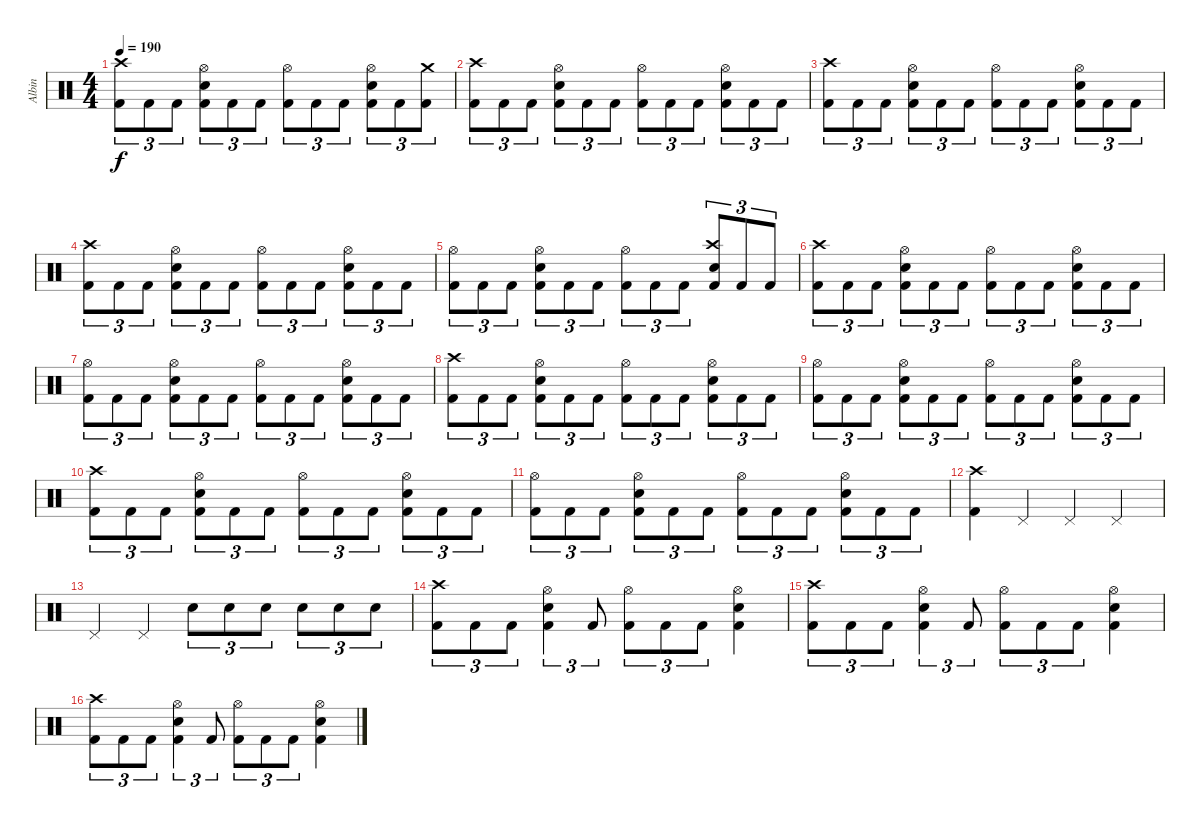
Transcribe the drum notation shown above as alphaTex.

\track ("Albin" "Albin") {instrument percussion}
\staff {score}
\articulation defaults
\ts (4 4)
\tempo 190
\clef neutral
\ks c
("Kick (hit) 2" "Crash high (hit)").8{tu (3 2) dy f} "Kick (hit) 2".8{tu (3 2)} "Kick (hit) 2".8{tu (3 2)} ("Kick (hit) 2" "Electric Snare (hit)" "Hi-Hat (open)").8{tu (3 2)} "Kick (hit) 2".8{tu (3 2)} "Kick (hit) 2".8{tu (3 2)} ("Kick (hit) 2" "Hi-Hat (open)").8{tu (3 2)} "Kick (hit) 2".8{tu (3 2)} "Kick (hit) 2".8{tu (3 2)} ("Kick (hit) 2" "Electric Snare (hit)" "Hi-Hat (open)").8{tu (3 2)} "Kick (hit) 2".8{tu (3 2)} ("Kick (hit) 2" "Crash medium (hit)").8{tu (3 2)} |
("Kick (hit) 2" "Crash high (hit)").8{tu (3 2)} "Kick (hit) 2".8{tu (3 2)} "Kick (hit) 2".8{tu (3 2)} ("Kick (hit) 2" "Electric Snare (hit)" "Hi-Hat (open)").8{tu (3 2)} "Kick (hit) 2".8{tu (3 2)} "Kick (hit) 2".8{tu (3 2)} ("Kick (hit) 2" "Hi-Hat (open)").8{tu (3 2)} "Kick (hit) 2".8{tu (3 2)} "Kick (hit) 2".8{tu (3 2)} ("Kick (hit) 2" "Electric Snare (hit)" "Hi-Hat (open)").8{tu (3 2)} "Kick (hit) 2".8{tu (3 2)} "Kick (hit) 2".8{tu (3 2)} |
("Kick (hit) 2" "Crash high (hit)").8{tu (3 2)} "Kick (hit) 2".8{tu (3 2)} "Kick (hit) 2".8{tu (3 2)} ("Kick (hit) 2" "Electric Snare (hit)" "Hi-Hat (open)").8{tu (3 2)} "Kick (hit) 2".8{tu (3 2)} "Kick (hit) 2".8{tu (3 2)} ("Kick (hit) 2" "Hi-Hat (open)").8{tu (3 2)} "Kick (hit) 2".8{tu (3 2)} "Kick (hit) 2".8{tu (3 2)} ("Kick (hit) 2" "Electric Snare (hit)" "Hi-Hat (open)").8{tu (3 2)} "Kick (hit) 2".8{tu (3 2)} "Kick (hit) 2".8{tu (3 2)} |
("Kick (hit) 2" "Crash high (hit)").8{tu (3 2)} "Kick (hit) 2".8{tu (3 2)} "Kick (hit) 2".8{tu (3 2)} ("Kick (hit) 2" "Electric Snare (hit)" "Hi-Hat (open)").8{tu (3 2)} "Kick (hit) 2".8{tu (3 2)} "Kick (hit) 2".8{tu (3 2)} ("Kick (hit) 2" "Hi-Hat (open)").8{tu (3 2)} "Kick (hit) 2".8{tu (3 2)} "Kick (hit) 2".8{tu (3 2)} ("Kick (hit) 2" "Electric Snare (hit)" "Hi-Hat (open)").8{tu (3 2)} "Kick (hit) 2".8{tu (3 2)} "Kick (hit) 2".8{tu (3 2)} |
("Kick (hit) 2" "Hi-Hat (open)").8{tu (3 2)} "Kick (hit) 2".8{tu (3 2)} "Kick (hit) 2".8{tu (3 2)} ("Kick (hit) 2" "Electric Snare (hit)" "Hi-Hat (open)").8{tu (3 2)} "Kick (hit) 2".8{tu (3 2)} "Kick (hit) 2".8{tu (3 2)} ("Kick (hit) 2" "Hi-Hat (open)").8{tu (3 2)} "Kick (hit) 2".8{tu (3 2)} "Kick (hit) 2".8{tu (3 2)} ("Kick (hit) 2" "Electric Snare (hit)" "Crash high (hit)").8{tu (3 2)} "Kick (hit) 2".8{tu (3 2)} "Kick (hit) 2".8{tu (3 2)} |
("Kick (hit) 2" "Crash high (hit)").8{tu (3 2)} "Kick (hit) 2".8{tu (3 2)} "Kick (hit) 2".8{tu (3 2)} ("Kick (hit) 2" "Electric Snare (hit)" "Hi-Hat (open)").8{tu (3 2)} "Kick (hit) 2".8{tu (3 2)} "Kick (hit) 2".8{tu (3 2)} ("Kick (hit) 2" "Hi-Hat (open)").8{tu (3 2)} "Kick (hit) 2".8{tu (3 2)} "Kick (hit) 2".8{tu (3 2)} ("Kick (hit) 2" "Electric Snare (hit)" "Hi-Hat (open)").8{tu (3 2)} "Kick (hit) 2".8{tu (3 2)} "Kick (hit) 2".8{tu (3 2)} |
("Kick (hit) 2" "Hi-Hat (open)").8{tu (3 2)} "Kick (hit) 2".8{tu (3 2)} "Kick (hit) 2".8{tu (3 2)} ("Kick (hit) 2" "Electric Snare (hit)" "Hi-Hat (open)").8{tu (3 2)} "Kick (hit) 2".8{tu (3 2)} "Kick (hit) 2".8{tu (3 2)} ("Kick (hit) 2" "Hi-Hat (open)").8{tu (3 2)} "Kick (hit) 2".8{tu (3 2)} "Kick (hit) 2".8{tu (3 2)} ("Kick (hit) 2" "Electric Snare (hit)" "Hi-Hat (open)").8{tu (3 2)} "Kick (hit) 2".8{tu (3 2)} "Kick (hit) 2".8{tu (3 2)} |
("Kick (hit) 2" "Crash high (hit)").8{tu (3 2)} "Kick (hit) 2".8{tu (3 2)} "Kick (hit) 2".8{tu (3 2)} ("Kick (hit) 2" "Electric Snare (hit)" "Hi-Hat (open)").8{tu (3 2)} "Kick (hit) 2".8{tu (3 2)} "Kick (hit) 2".8{tu (3 2)} ("Kick (hit) 2" "Hi-Hat (open)").8{tu (3 2)} "Kick (hit) 2".8{tu (3 2)} "Kick (hit) 2".8{tu (3 2)} ("Kick (hit) 2" "Electric Snare (hit)" "Hi-Hat (open)").8{tu (3 2)} "Kick (hit) 2".8{tu (3 2)} "Kick (hit) 2".8{tu (3 2)} |
("Kick (hit) 2" "Hi-Hat (open)").8{tu (3 2)} "Kick (hit) 2".8{tu (3 2)} "Kick (hit) 2".8{tu (3 2)} ("Kick (hit) 2" "Electric Snare (hit)" "Hi-Hat (open)").8{tu (3 2)} "Kick (hit) 2".8{tu (3 2)} "Kick (hit) 2".8{tu (3 2)} ("Kick (hit) 2" "Hi-Hat (open)").8{tu (3 2)} "Kick (hit) 2".8{tu (3 2)} "Kick (hit) 2".8{tu (3 2)} ("Kick (hit) 2" "Electric Snare (hit)" "Hi-Hat (open)").8{tu (3 2)} "Kick (hit) 2".8{tu (3 2)} "Kick (hit) 2".8{tu (3 2)} |
("Kick (hit) 2" "Crash high (hit)").8{tu (3 2)} "Kick (hit) 2".8{tu (3 2)} "Kick (hit) 2".8{tu (3 2)} ("Kick (hit) 2" "Electric Snare (hit)" "Hi-Hat (open)").8{tu (3 2)} "Kick (hit) 2".8{tu (3 2)} "Kick (hit) 2".8{tu (3 2)} ("Kick (hit) 2" "Hi-Hat (open)").8{tu (3 2)} "Kick (hit) 2".8{tu (3 2)} "Kick (hit) 2".8{tu (3 2)} ("Kick (hit) 2" "Electric Snare (hit)" "Hi-Hat (open)").8{tu (3 2)} "Kick (hit) 2".8{tu (3 2)} "Kick (hit) 2".8{tu (3 2)} |
("Kick (hit) 2" "Hi-Hat (open)").8{tu (3 2)} "Kick (hit) 2".8{tu (3 2)} "Kick (hit) 2".8{tu (3 2)} ("Kick (hit) 2" "Electric Snare (hit)" "Hi-Hat (open)").8{tu (3 2)} "Kick (hit) 2".8{tu (3 2)} "Kick (hit) 2".8{tu (3 2)} ("Kick (hit) 2" "Hi-Hat (open)").8{tu (3 2)} "Kick (hit) 2".8{tu (3 2)} "Kick (hit) 2".8{tu (3 2)} ("Kick (hit) 2" "Electric Snare (hit)" "Hi-Hat (open)").8{tu (3 2)} "Kick (hit) 2".8{tu (3 2)} "Kick (hit) 2".8{tu (3 2)} |
("Kick (hit) 2" "Crash high (hit)").4 "Pedal Hi-Hat (hit)".4 "Pedal Hi-Hat (hit)".4 "Pedal Hi-Hat (hit)".4 |
"Pedal Hi-Hat (hit)".4 "Pedal Hi-Hat (hit)".4 "Electric Snare (hit)".8{tu (3 2)} "Electric Snare (hit)".8{tu (3 2)} "Electric Snare (hit)".8{tu (3 2)} "Electric Snare (hit)".8{tu (3 2)} "Electric Snare (hit)".8{tu (3 2)} "Electric Snare (hit)".8{tu (3 2)} |
("Kick (hit) 2" "Crash high (hit)").8{tu (3 2)} "Kick (hit) 2".8{tu (3 2)} "Kick (hit) 2".8{tu (3 2)} ("Kick (hit) 2" "Electric Snare (hit)" "Hi-Hat (open)").4{tu (3 2)} "Kick (hit) 2".8{tu (3 2)} ("Kick (hit) 2" "Hi-Hat (open)").8{tu (3 2)} "Kick (hit) 2".8{tu (3 2)} "Kick (hit) 2".8{tu (3 2)} ("Kick (hit) 2" "Electric Snare (hit)" "Hi-Hat (open)").4 |
("Kick (hit) 2" "Crash high (hit)").8{tu (3 2)} "Kick (hit) 2".8{tu (3 2)} "Kick (hit) 2".8{tu (3 2)} ("Kick (hit) 2" "Electric Snare (hit)" "Hi-Hat (open)").4{tu (3 2)} "Kick (hit) 2".8{tu (3 2)} ("Kick (hit) 2" "Hi-Hat (open)").8{tu (3 2)} "Kick (hit) 2".8{tu (3 2)} "Kick (hit) 2".8{tu (3 2)} ("Kick (hit) 2" "Electric Snare (hit)" "Hi-Hat (open)").4 |
("Kick (hit) 2" "Crash high (hit)").8{tu (3 2)} "Kick (hit) 2".8{tu (3 2)} "Kick (hit) 2".8{tu (3 2)} ("Kick (hit) 2" "Electric Snare (hit)" "Hi-Hat (open)").4{tu (3 2)} "Kick (hit) 2".8{tu (3 2)} ("Kick (hit) 2" "Hi-Hat (open)").8{tu (3 2)} "Kick (hit) 2".8{tu (3 2)} "Kick (hit) 2".8{tu (3 2)} ("Kick (hit) 2" "Electric Snare (hit)" "Hi-Hat (open)").4
